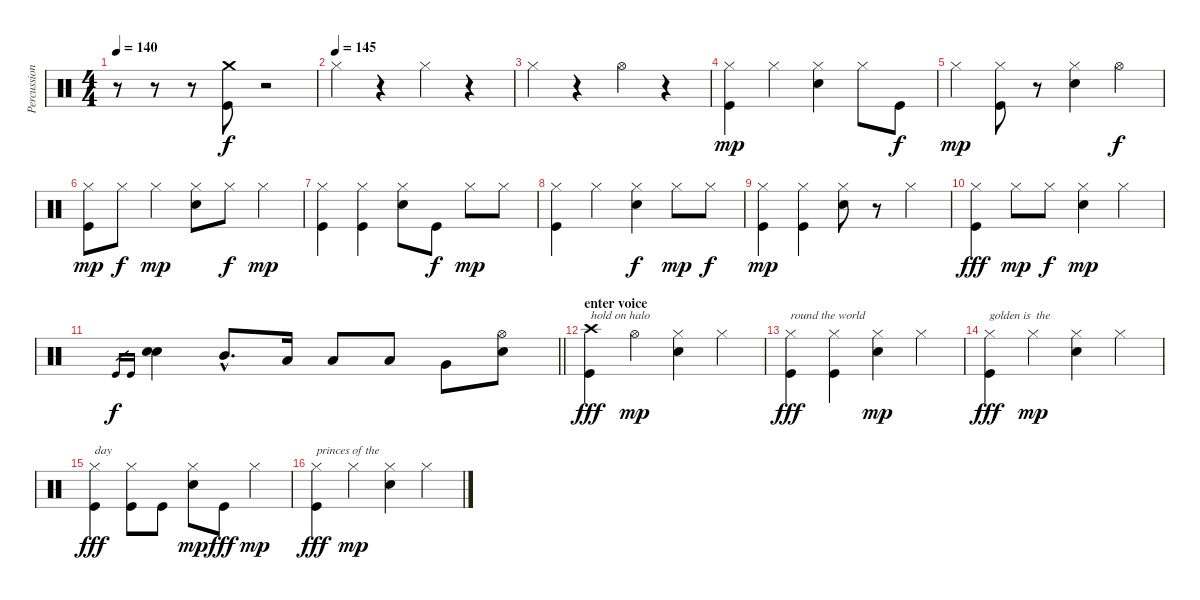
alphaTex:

\track ("Percussioni" "Percussion") {instrument percussion}
\staff {score}
\articulation defaults
\ts (4 4)
\tempo 140
\clef neutral
\ks c
r.8{dy f} r.8 r.8 ("Crash medium (hit)" "Kick (hit)").8 r.2 |
\tempo (145)
"Hi-Hat (closed)".4 r.4 "Hi-Hat (closed)".4 r.4 |
"Hi-Hat (closed)".4 r.4 "Hi-Hat (open)".4 r.4 |
("Hi-Hat (closed)" "Kick (hit)").4{dy mp} "Hi-Hat (closed)".4 ("Hi-Hat (closed)" "Snare (hit) 2").4 "Hi-Hat (closed)".8 "Kick (hit)".8{dy f} |
"Hi-Hat (closed)".4{dy mp} ("Hi-Hat (closed)" "Kick (hit)").8 r.8 ("Hi-Hat (closed)" "Snare (hit) 2").4 "Hi-Hat (open)".4{dy f} |
("Hi-Hat (closed)" "Kick (hit)").8{dy mp} "Hi-Hat (closed)".8{dy f} "Hi-Hat (closed)".4{dy mp} ("Hi-Hat (closed)" "Snare (hit) 2").8 "Hi-Hat (closed)".8{dy f} "Hi-Hat (closed)".4{dy mp} |
("Hi-Hat (closed)" "Kick (hit)").4 ("Hi-Hat (closed)" "Kick (hit)").4 ("Hi-Hat (closed)" "Snare (hit) 2").8 "Kick (hit)".8{dy f} "Hi-Hat (closed)".8{dy mp} "Hi-Hat (closed)".8 |
("Hi-Hat (closed)" "Kick (hit)").4 "Hi-Hat (closed)".4 ("Hi-Hat (closed)" "Snare (hit) 2").4{dy f} "Hi-Hat (closed)".8{dy mp} "Hi-Hat (closed)".8{dy f} |
("Hi-Hat (closed)" "Kick (hit)").4{dy mp} ("Hi-Hat (closed)" "Kick (hit)").4 ("Hi-Hat (closed)" "Snare (hit) 2").8 r.8 "Hi-Hat (closed)".4 |
("Hi-Hat (closed)" "Kick (hit)").4{dy fff} "Hi-Hat (closed)".8{dy mp} "Hi-Hat (closed)".8{dy f} ("Hi-Hat (closed)" "Snare (hit) 2").4{dy mp} "Hi-Hat (closed)".4 |
\barLineRight lightlight "Kick (hit)".16{gr dy f} "Kick (hit)".16{gr}
("Snare (hit) 2" "Snare (hit) 2").4 "Mid Tom (hit)"{hac}.8{d} "Low Tom (hit)".16 "Low Tom (hit)".8 "Low Tom (hit)".8 "Very Low Tom (hit)".8 ("Snare (hit) 2" "Hi-Hat (open)").8 |
\section ("" "enter voice")
("Crash high (hit)" "Kick (hit)").4{txt "hold on halo" dy fff} "Hi-Hat (open)".4{dy mp} ("Hi-Hat (closed)" "Snare (hit) 2").4 "Hi-Hat (closed)".4 |
("Hi-Hat (closed)" "Kick (hit)").4{txt "round the world" dy fff} ("Hi-Hat (closed)" "Kick (hit)").4 ("Hi-Hat (closed)" "Snare (hit) 2").4{dy mp} "Hi-Hat (closed)".4 |
("Hi-Hat (closed)" "Kick (hit)").4{txt "golden is  the" dy fff} "Hi-Hat (closed)".4{dy mp} ("Hi-Hat (closed)" "Snare (hit) 2").4 "Hi-Hat (closed)".4 |
("Hi-Hat (closed)" "Kick (hit)").4{txt "day" dy fff} ("Hi-Hat (closed)" "Kick (hit)").8 "Kick (hit)".8 ("Hi-Hat (closed)" "Snare (hit) 2").8{dy mp} "Kick (hit)".8{dy fff} "Hi-Hat (closed)".4{dy mp} |
("Hi-Hat (closed)" "Kick (hit)").4{txt "princes of the" dy fff} "Hi-Hat (closed)".4{dy mp} ("Hi-Hat (closed)" "Snare (hit) 2").4 "Hi-Hat (closed)".4
